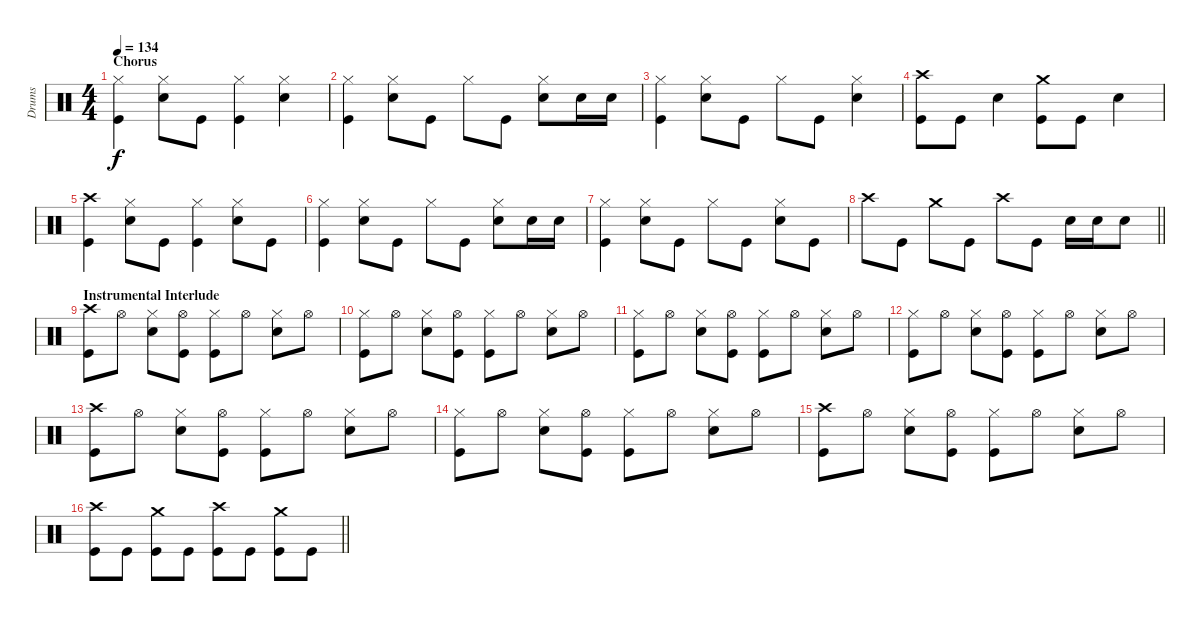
\track ("Drums" "Drums") {instrument percussion}
\staff {score}
\articulation defaults
\ts (4 4)
\section ("" "Chorus")
\tempo 134
\clef neutral
\ks c
("Hi-Hat (closed)" "Kick (hit)").4{dy f} ("Hi-Hat (closed)" "Snare (hit) 2").8 "Kick (hit)".8 ("Hi-Hat (closed)" "Kick (hit)").4 ("Hi-Hat (closed)" "Snare (hit) 2").4 |
("Hi-Hat (closed)" "Kick (hit)").4 ("Hi-Hat (closed)" "Snare (hit) 2").8 "Kick (hit)".8 "Hi-Hat (closed)".8 "Kick (hit)".8 ("Hi-Hat (closed)" "Snare (hit) 2").8 "Snare (hit) 2".16 "Snare (hit) 2".16 |
("Hi-Hat (closed)" "Kick (hit)").4 ("Hi-Hat (closed)" "Snare (hit) 2").8 "Kick (hit)".8 "Hi-Hat (closed)".8 "Kick (hit)".8 ("Hi-Hat (closed)" "Snare (hit) 2").4 |
("Crash high (hit)" "Kick (hit)").8 "Kick (hit)".8 "Snare (hit) 2".4 ("Crash medium (hit)" "Kick (hit)").8 "Kick (hit)".8 "Snare (hit) 2".4 |
("Crash high (hit)" "Kick (hit)").4 ("Hi-Hat (closed)" "Snare (hit) 2").8 "Kick (hit)".8 ("Hi-Hat (closed)" "Kick (hit)").4 ("Hi-Hat (closed)" "Snare (hit) 2").8 "Kick (hit)".8 |
("Hi-Hat (closed)" "Kick (hit)").4 ("Hi-Hat (closed)" "Snare (hit) 2").8 "Kick (hit)".8 "Hi-Hat (closed)".8 "Kick (hit)".8 ("Hi-Hat (closed)" "Snare (hit) 2").8 "Snare (hit) 2".16 "Snare (hit) 2".16 |
("Hi-Hat (closed)" "Kick (hit)").4 ("Hi-Hat (closed)" "Snare (hit) 2").8 "Kick (hit)".8 "Hi-Hat (closed)".8 "Kick (hit)".8 ("Hi-Hat (closed)" "Snare (hit) 2").8 "Kick (hit)".8 |
\barLineRight lightlight "Crash high (hit)".8 "Kick (hit)".8 "Crash medium (hit)".8 "Kick (hit)".8 "Crash high (hit)".8 "Kick (hit)".8 "Snare (hit) 2".16 "Snare (hit) 2".16 "Snare (hit) 2".8
|
\section ("" "Instrumental Interlude")
("Crash high (hit)" "Kick (hit)").8 "Hi-Hat (open)".8 ("Hi-Hat (closed)" "Snare (hit) 2").8 ("Hi-Hat (open)" "Kick (hit)").8 ("Hi-Hat (closed)" "Kick (hit)").8 "Hi-Hat (open)".8 ("Hi-Hat (closed)" "Snare (hit) 2").8 "Hi-Hat (open)".8 |
("Hi-Hat (closed)" "Kick (hit)").8 "Hi-Hat (open)".8 ("Hi-Hat (closed)" "Snare (hit) 2").8 ("Hi-Hat (open)" "Kick (hit)").8 ("Hi-Hat (closed)" "Kick (hit)").8 "Hi-Hat (open)".8 ("Hi-Hat (closed)" "Snare (hit) 2").8 "Hi-Hat (open)".8 |
("Hi-Hat (closed)" "Kick (hit)").8 "Hi-Hat (open)".8 ("Hi-Hat (closed)" "Snare (hit) 2").8 ("Hi-Hat (open)" "Kick (hit)").8 ("Hi-Hat (closed)" "Kick (hit)").8 "Hi-Hat (open)".8 ("Hi-Hat (closed)" "Snare (hit) 2").8 "Hi-Hat (open)".8 |
("Hi-Hat (closed)" "Kick (hit)").8 "Hi-Hat (open)".8 ("Hi-Hat (closed)" "Snare (hit) 2").8 ("Hi-Hat (open)" "Kick (hit)").8 ("Hi-Hat (closed)" "Kick (hit)").8 "Hi-Hat (open)".8 ("Hi-Hat (closed)" "Snare (hit) 2").8 "Hi-Hat (open)".8 |
("Crash high (hit)" "Kick (hit)").8 "Hi-Hat (open)".8 ("Hi-Hat (closed)" "Snare (hit) 2").8 ("Hi-Hat (open)" "Kick (hit)").8 ("Hi-Hat (closed)" "Kick (hit)").8 "Hi-Hat (open)".8 ("Hi-Hat (closed)" "Snare (hit) 2").8 "Hi-Hat (open)".8 |
("Hi-Hat (closed)" "Kick (hit)").8 "Hi-Hat (open)".8 ("Hi-Hat (closed)" "Snare (hit) 2").8 ("Hi-Hat (open)" "Kick (hit)").8 ("Hi-Hat (closed)" "Kick (hit)").8 "Hi-Hat (open)".8 ("Hi-Hat (closed)" "Snare (hit) 2").8 "Hi-Hat (open)".8 |
("Crash high (hit)" "Kick (hit)").8 "Hi-Hat (open)".8 ("Hi-Hat (closed)" "Snare (hit) 2").8 ("Hi-Hat (open)" "Kick (hit)").8 ("Hi-Hat (closed)" "Kick (hit)").8 "Hi-Hat (open)".8 ("Hi-Hat (closed)" "Snare (hit) 2").8 "Hi-Hat (open)".8 |
\barLineRight lightlight
("Crash high (hit)" "Kick (hit)").8 "Kick (hit)".8 ("Crash medium (hit)" "Kick (hit)").8 "Kick (hit)".8 ("Crash high (hit)" "Kick (hit)").8 "Kick (hit)".8 ("Crash medium (hit)" "Kick (hit)").8 "Kick (hit)".8
